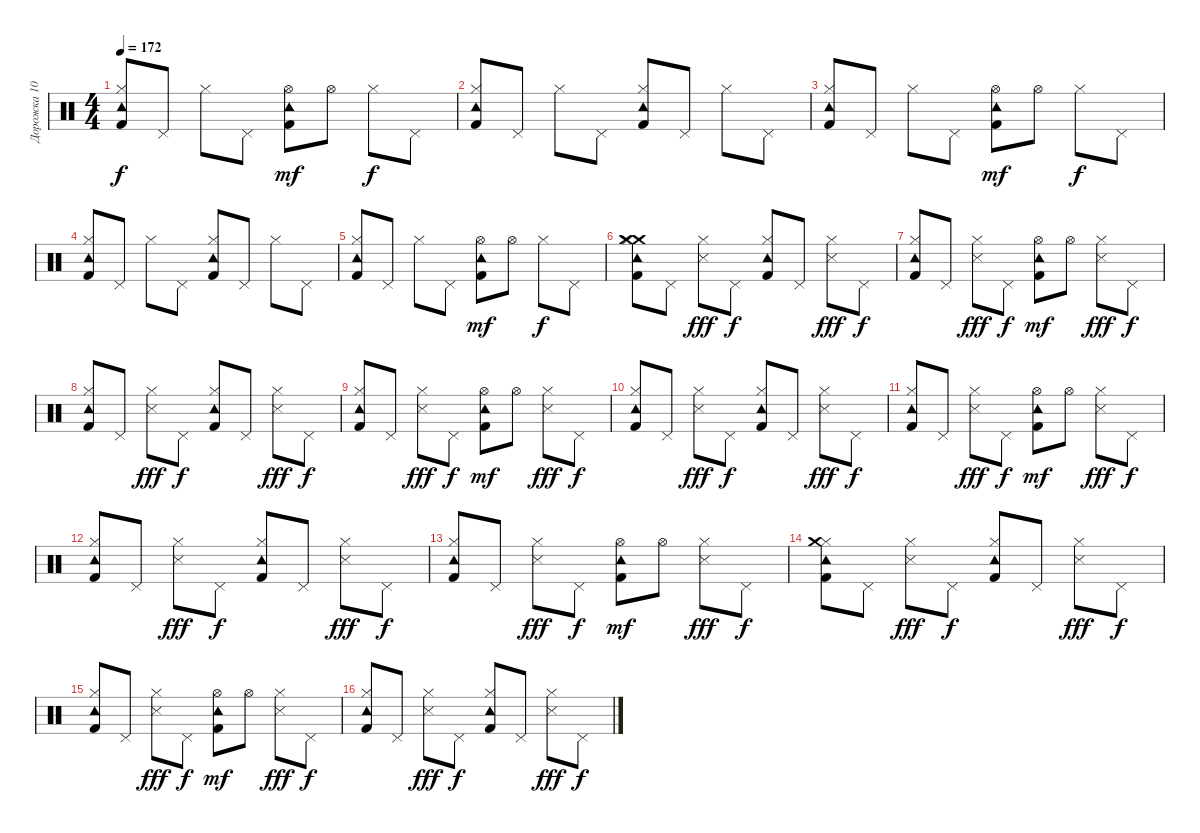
\track ("Дорожка 10" "Дорожка 10") {instrument percussion}
\staff {score}
\articulation defaults
\ts (4 4)
\tempo 172
\clef neutral
\ks c
("Kick (hit) 2" "Hi-Hat (closed)" "Tambourine (hit)").8{dy f} "Pedal Hi-Hat (hit)".8 "Hi-Hat (closed)".8 "Pedal Hi-Hat (hit)".8 ("Tambourine (hit)" "Kick (hit) 2" "Hi-Hat (open)").8{dy mf} "Hi-Hat (open)".8 "Hi-Hat (closed)".8{dy f} "Pedal Hi-Hat (hit)".8 |
("Hi-Hat (closed)" "Kick (hit) 2" "Tambourine (hit)").8 "Pedal Hi-Hat (hit)".8 "Hi-Hat (closed)".8 "Pedal Hi-Hat (hit)".8 ("Hi-Hat (closed)" "Kick (hit) 2" "Tambourine (hit)").8 "Pedal Hi-Hat (hit)".8 "Hi-Hat (closed)".8 "Pedal Hi-Hat (hit)".8 |
("Tambourine (hit)" "Kick (hit) 2" "Hi-Hat (closed)").8 "Pedal Hi-Hat (hit)".8 "Hi-Hat (closed)".8 "Pedal Hi-Hat (hit)".8 ("Kick (hit) 2" "Hi-Hat (open)" "Tambourine (hit)").8{dy mf} "Hi-Hat (open)".8 "Hi-Hat (closed)".8{dy f} "Pedal Hi-Hat (hit)".8 |
("Tambourine (hit)" "Kick (hit) 2" "Hi-Hat (closed)").8 "Pedal Hi-Hat (hit)".8 "Hi-Hat (closed)".8 "Pedal Hi-Hat (hit)".8 ("Hi-Hat (closed)" "Kick (hit) 2" "Tambourine (hit)").8 "Pedal Hi-Hat (hit)".8 "Hi-Hat (closed)".8 "Pedal Hi-Hat (hit)".8 |
("Hi-Hat (closed)" "Kick (hit) 2" "Tambourine (hit)").8 "Pedal Hi-Hat (hit)".8 "Hi-Hat (closed)".8 "Pedal Hi-Hat (hit)".8 ("Tambourine (hit)" "Kick (hit) 2" "Hi-Hat (open)").8{dy mf} "Hi-Hat (open)".8 "Hi-Hat (closed)".8{dy f} "Pedal Hi-Hat (hit)".8 |
("Crash medium (hit)" "Crash medium (hit)" "Kick (hit) 2" "Hi-Hat (closed)" "Tambourine (hit)").8 "Pedal Hi-Hat (hit)".8 ("Snare (side stick) 3" "Hi-Hat (closed)").8{dy fff} "Pedal Hi-Hat (hit)".8{dy f} ("Tambourine (hit)" "Hi-Hat (closed)" "Kick (hit) 2").8 "Pedal Hi-Hat (hit)".8 ("Hi-Hat (closed)" "Snare (side stick) 3").8{dy fff} "Pedal Hi-Hat (hit)".8{dy f} |
("Kick (hit) 2" "Hi-Hat (closed)" "Tambourine (hit)").8 "Pedal Hi-Hat (hit)".8 ("Snare (side stick) 3" "Hi-Hat (closed)").8{dy fff} "Pedal Hi-Hat (hit)".8{dy f} ("Tambourine (hit)" "Kick (hit) 2" "Hi-Hat (open)").8{dy mf} "Hi-Hat (open)".8 ("Hi-Hat (closed)" "Snare (side stick) 3").8{dy fff} "Pedal Hi-Hat (hit)".8{dy f} |
("Tambourine (hit)" "Hi-Hat (closed)" "Kick (hit) 2").8 "Pedal Hi-Hat (hit)".8 ("Hi-Hat (closed)" "Snare (side stick) 3").8{dy fff} "Pedal Hi-Hat (hit)".8{dy f} ("Kick (hit) 2" "Hi-Hat (closed)" "Tambourine (hit)").8 "Pedal Hi-Hat (hit)".8 ("Hi-Hat (closed)" "Snare (side stick) 3").8{dy fff} "Pedal Hi-Hat (hit)".8{dy f} |
("Tambourine (hit)" "Kick (hit) 2" "Hi-Hat (closed)").8 "Pedal Hi-Hat (hit)".8 ("Snare (side stick) 3" "Hi-Hat (closed)").8{dy fff} "Pedal Hi-Hat (hit)".8{dy f} ("Hi-Hat (open)" "Kick (hit) 2" "Tambourine (hit)").8{dy mf} "Hi-Hat (open)".8 ("Snare (side stick) 3" "Hi-Hat (closed)").8{dy fff} "Pedal Hi-Hat (hit)".8{dy f} |
("Tambourine (hit)" "Kick (hit) 2" "Hi-Hat (closed)").8 "Pedal Hi-Hat (hit)".8 ("Snare (side stick) 3" "Hi-Hat (closed)").8{dy fff} "Pedal Hi-Hat (hit)".8{dy f} ("Tambourine (hit)" "Hi-Hat (closed)" "Kick (hit) 2").8 "Pedal Hi-Hat (hit)".8 ("Hi-Hat (closed)" "Snare (side stick) 3").8{dy fff} "Pedal Hi-Hat (hit)".8{dy f} |
("Hi-Hat (closed)" "Kick (hit) 2" "Tambourine (hit)").8 "Pedal Hi-Hat (hit)".8 ("Snare (side stick) 3" "Hi-Hat (closed)").8{dy fff} "Pedal Hi-Hat (hit)".8{dy f} ("Hi-Hat (open)" "Kick (hit) 2" "Tambourine (hit)").8{dy mf} "Hi-Hat (open)".8 ("Hi-Hat (closed)" "Snare (side stick) 3").8{dy fff} "Pedal Hi-Hat (hit)".8{dy f} |
("Tambourine (hit)" "Hi-Hat (closed)" "Kick (hit) 2").8 "Pedal Hi-Hat (hit)".8 ("Snare (side stick) 3" "Hi-Hat (closed)").8{dy fff} "Pedal Hi-Hat (hit)".8{dy f} ("Kick (hit) 2" "Hi-Hat (closed)" "Tambourine (hit)").8 "Pedal Hi-Hat (hit)".8 ("Snare (side stick) 3" "Hi-Hat (closed)").8{dy fff} "Pedal Hi-Hat (hit)".8{dy f} |
("Tambourine (hit)" "Kick (hit) 2" "Hi-Hat (closed)").8 "Pedal Hi-Hat (hit)".8 ("Snare (side stick) 3" "Hi-Hat (closed)").8{dy fff} "Pedal Hi-Hat (hit)".8{dy f} ("Kick (hit) 2" "Hi-Hat (open)" "Tambourine (hit)").8{dy mf} "Hi-Hat (open)".8 ("Snare (side stick) 3" "Hi-Hat (closed)").8{dy fff} "Pedal Hi-Hat (hit)".8{dy f} |
("Kick (hit) 2" "Hi-Hat (closed)" "Tambourine (hit)" "Crash medium (hit)").8 "Pedal Hi-Hat (hit)".8 ("Snare (side stick) 3" "Hi-Hat (closed)").8{dy fff} "Pedal Hi-Hat (hit)".8{dy f} ("Tambourine (hit)" "Hi-Hat (closed)" "Kick (hit) 2").8 "Pedal Hi-Hat (hit)".8 ("Hi-Hat (closed)" "Snare (side stick) 3").8{dy fff} "Pedal Hi-Hat (hit)".8{dy f} |
("Hi-Hat (closed)" "Kick (hit) 2" "Tambourine (hit)").8 "Pedal Hi-Hat (hit)".8 ("Snare (side stick) 3" "Hi-Hat (closed)").8{dy fff} "Pedal Hi-Hat (hit)".8{dy f} ("Tambourine (hit)" "Kick (hit) 2" "Hi-Hat (open)").8{dy mf} "Hi-Hat (open)".8 ("Hi-Hat (closed)" "Snare (side stick) 3").8{dy fff} "Pedal Hi-Hat (hit)".8{dy f} |
("Kick (hit) 2" "Hi-Hat (closed)" "Tambourine (hit)").8 "Pedal Hi-Hat (hit)".8 ("Snare (side stick) 3" "Hi-Hat (closed)").8{dy fff} "Pedal Hi-Hat (hit)".8{dy f} ("Kick (hit) 2" "Hi-Hat (closed)" "Tambourine (hit)").8 "Pedal Hi-Hat (hit)".8 ("Hi-Hat (closed)" "Snare (side stick) 3").8{dy fff} "Pedal Hi-Hat (hit)".8{dy f}
